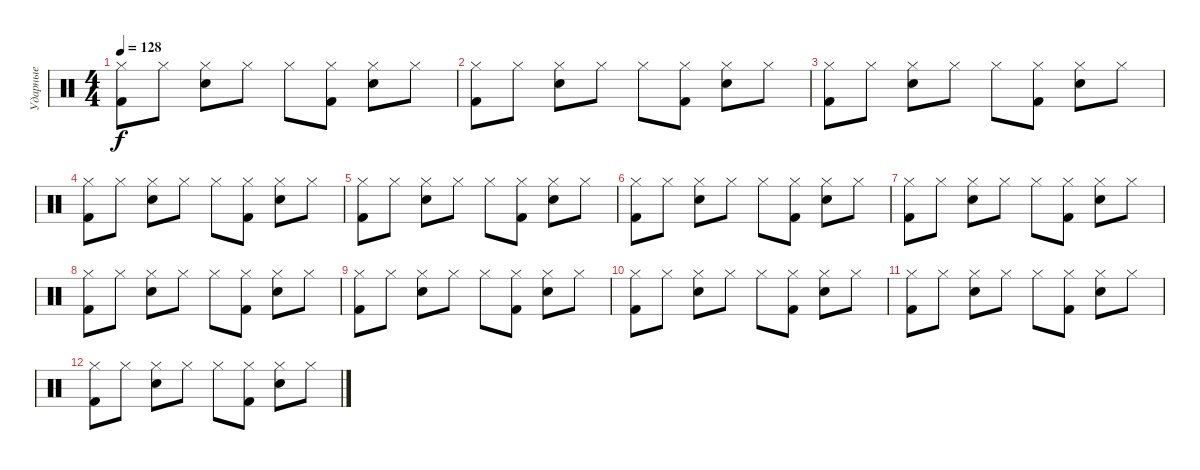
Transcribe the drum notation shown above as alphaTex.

\track ("Ударные" "Ударные") {instrument percussion}
\staff {score}
\articulation defaults
\ts (4 4)
\tempo 128
\clef neutral
\ks c
("Hi-Hat (closed)" "Kick (hit) 2").8{dy f} "Hi-Hat (closed)".8 ("Hi-Hat (closed)" "Snare (hit) 2").8 "Hi-Hat (closed)".8 "Hi-Hat (closed)".8 ("Hi-Hat (closed)" "Kick (hit) 2").8 ("Hi-Hat (closed)" "Snare (hit) 2").8 "Hi-Hat (closed)".8 |
("Hi-Hat (closed)" "Kick (hit) 2").8 "Hi-Hat (closed)".8 ("Hi-Hat (closed)" "Snare (hit) 2").8 "Hi-Hat (closed)".8 "Hi-Hat (closed)".8 ("Hi-Hat (closed)" "Kick (hit) 2").8 ("Hi-Hat (closed)" "Snare (hit) 2").8 "Hi-Hat (closed)".8 |
("Hi-Hat (closed)" "Kick (hit) 2").8 "Hi-Hat (closed)".8 ("Hi-Hat (closed)" "Snare (hit) 2").8 "Hi-Hat (closed)".8 "Hi-Hat (closed)".8 ("Hi-Hat (closed)" "Kick (hit) 2").8 ("Hi-Hat (closed)" "Snare (hit) 2").8 "Hi-Hat (closed)".8 |
("Hi-Hat (closed)" "Kick (hit) 2").8 "Hi-Hat (closed)".8 ("Hi-Hat (closed)" "Snare (hit) 2").8 "Hi-Hat (closed)".8 "Hi-Hat (closed)".8 ("Hi-Hat (closed)" "Kick (hit) 2").8 ("Hi-Hat (closed)" "Snare (hit) 2").8 "Hi-Hat (closed)".8 |
("Hi-Hat (closed)" "Kick (hit) 2").8 "Hi-Hat (closed)".8 ("Hi-Hat (closed)" "Snare (hit) 2").8 "Hi-Hat (closed)".8 "Hi-Hat (closed)".8 ("Hi-Hat (closed)" "Kick (hit) 2").8 ("Hi-Hat (closed)" "Snare (hit) 2").8 "Hi-Hat (closed)".8 |
("Hi-Hat (closed)" "Kick (hit) 2").8 "Hi-Hat (closed)".8 ("Hi-Hat (closed)" "Snare (hit) 2").8 "Hi-Hat (closed)".8 "Hi-Hat (closed)".8 ("Hi-Hat (closed)" "Kick (hit) 2").8 ("Hi-Hat (closed)" "Snare (hit) 2").8 "Hi-Hat (closed)".8 |
("Hi-Hat (closed)" "Kick (hit) 2").8 "Hi-Hat (closed)".8 ("Hi-Hat (closed)" "Snare (hit) 2").8 "Hi-Hat (closed)".8 "Hi-Hat (closed)".8 ("Hi-Hat (closed)" "Kick (hit) 2").8 ("Hi-Hat (closed)" "Snare (hit) 2").8 "Hi-Hat (closed)".8 |
("Hi-Hat (closed)" "Kick (hit) 2").8 "Hi-Hat (closed)".8 ("Hi-Hat (closed)" "Snare (hit) 2").8 "Hi-Hat (closed)".8 "Hi-Hat (closed)".8 ("Hi-Hat (closed)" "Kick (hit) 2").8 ("Hi-Hat (closed)" "Snare (hit) 2").8 "Hi-Hat (closed)".8 |
("Hi-Hat (closed)" "Kick (hit) 2").8 "Hi-Hat (closed)".8 ("Hi-Hat (closed)" "Snare (hit) 2").8 "Hi-Hat (closed)".8 "Hi-Hat (closed)".8 ("Hi-Hat (closed)" "Kick (hit) 2").8 ("Hi-Hat (closed)" "Snare (hit) 2").8 "Hi-Hat (closed)".8 |
("Hi-Hat (closed)" "Kick (hit) 2").8 "Hi-Hat (closed)".8 ("Hi-Hat (closed)" "Snare (hit) 2").8 "Hi-Hat (closed)".8 "Hi-Hat (closed)".8 ("Hi-Hat (closed)" "Kick (hit) 2").8 ("Hi-Hat (closed)" "Snare (hit) 2").8 "Hi-Hat (closed)".8 |
("Hi-Hat (closed)" "Kick (hit) 2").8 "Hi-Hat (closed)".8 ("Hi-Hat (closed)" "Snare (hit) 2").8 "Hi-Hat (closed)".8 "Hi-Hat (closed)".8 ("Hi-Hat (closed)" "Kick (hit) 2").8 ("Hi-Hat (closed)" "Snare (hit) 2").8 "Hi-Hat (closed)".8 |
("Hi-Hat (closed)" "Kick (hit) 2").8 "Hi-Hat (closed)".8 ("Hi-Hat (closed)" "Snare (hit) 2").8 "Hi-Hat (closed)".8 "Hi-Hat (closed)".8 ("Hi-Hat (closed)" "Kick (hit) 2").8 ("Hi-Hat (closed)" "Snare (hit) 2").8 "Hi-Hat (closed)".8
